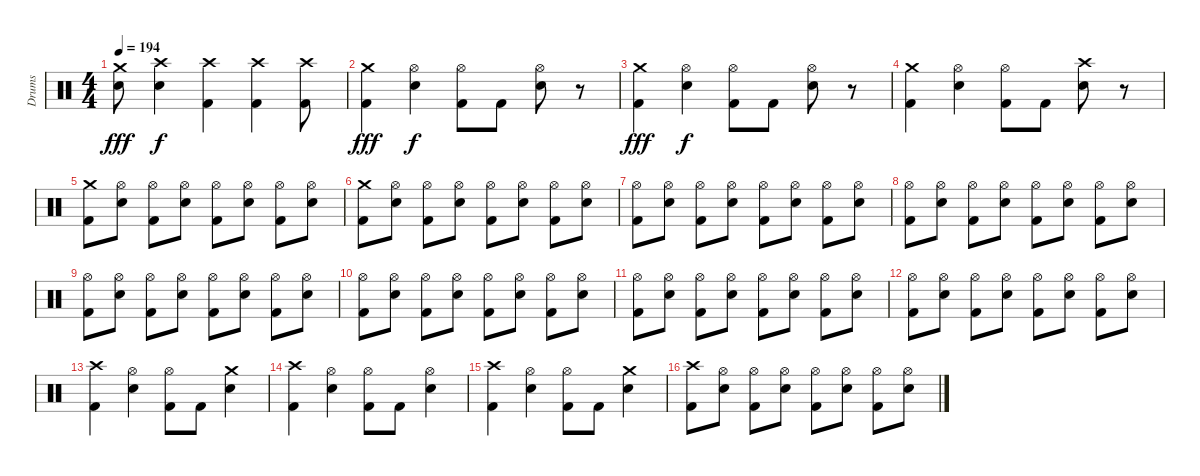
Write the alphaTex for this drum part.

\track ("Drums" "Drums") {instrument percussion}
\staff {score}
\articulation defaults
\ts (4 4)
\tempo 194
\clef neutral
\ks c
("Crash medium (hit)" "Snare (hit) 2").8{dy fff} ("Crash high (hit)" "Snare (hit) 2").4{dy f} ("Crash high (hit)" "Kick (hit) 2").4 ("Crash high (hit)" "Kick (hit) 2").4 ("Crash high (hit)" "Kick (hit) 2").8 |
("Crash medium (hit)" "Kick (hit) 2").4{dy fff} ("Hi-Hat (open)" "Snare (hit) 2").4{dy f} ("Hi-Hat (open)" "Kick (hit) 2").8 "Kick (hit) 2".8 ("Hi-Hat (open)" "Snare (hit) 2").8 r.8 |
("Crash medium (hit)" "Kick (hit) 2").4{dy fff} ("Hi-Hat (open)" "Snare (hit) 2").4{dy f} ("Hi-Hat (open)" "Kick (hit) 2").8 "Kick (hit) 2".8 ("Hi-Hat (open)" "Snare (hit) 2").8 r.8 |
("Crash medium (hit)" "Kick (hit) 2").4 ("Hi-Hat (open)" "Snare (hit) 2").4 ("Hi-Hat (open)" "Kick (hit) 2").8 "Kick (hit) 2".8 ("Crash high (hit)" "Snare (hit) 2").8 r.8 |
("Crash medium (hit)" "Kick (hit) 2").8 ("Hi-Hat (open)" "Snare (hit) 2").8 ("Hi-Hat (open)" "Kick (hit) 2").8 ("Hi-Hat (open)" "Snare (hit) 2").8 ("Hi-Hat (open)" "Kick (hit) 2").8 ("Hi-Hat (open)" "Snare (hit) 2").8 ("Hi-Hat (open)" "Kick (hit) 2").8 ("Hi-Hat (open)" "Snare (hit) 2").8 |
("Crash medium (hit)" "Kick (hit) 2").8 ("Hi-Hat (open)" "Snare (hit) 2").8 ("Hi-Hat (open)" "Kick (hit) 2").8 ("Hi-Hat (open)" "Snare (hit) 2").8 ("Hi-Hat (open)" "Kick (hit) 2").8 ("Hi-Hat (open)" "Snare (hit) 2").8 ("Hi-Hat (open)" "Kick (hit) 2").8 ("Hi-Hat (open)" "Snare (hit) 2").8 |
("Hi-Hat (open)" "Kick (hit) 2").8 ("Hi-Hat (open)" "Snare (hit) 2").8 ("Hi-Hat (open)" "Kick (hit) 2").8 ("Hi-Hat (open)" "Snare (hit) 2").8 ("Hi-Hat (open)" "Kick (hit) 2").8 ("Hi-Hat (open)" "Snare (hit) 2").8 ("Hi-Hat (open)" "Kick (hit) 2").8 ("Hi-Hat (open)" "Snare (hit) 2").8 |
("Hi-Hat (open)" "Kick (hit) 2").8 ("Hi-Hat (open)" "Snare (hit) 2").8 ("Hi-Hat (open)" "Kick (hit) 2").8 ("Hi-Hat (open)" "Snare (hit) 2").8 ("Hi-Hat (open)" "Kick (hit) 2").8 ("Hi-Hat (open)" "Snare (hit) 2").8 ("Hi-Hat (open)" "Kick (hit) 2").8 ("Hi-Hat (open)" "Snare (hit) 2").8 |
("Hi-Hat (open)" "Kick (hit) 2").8 ("Hi-Hat (open)" "Snare (hit) 2").8 ("Hi-Hat (open)" "Kick (hit) 2").8 ("Hi-Hat (open)" "Snare (hit) 2").8 ("Hi-Hat (open)" "Kick (hit) 2").8 ("Hi-Hat (open)" "Snare (hit) 2").8 ("Hi-Hat (open)" "Kick (hit) 2").8 ("Hi-Hat (open)" "Snare (hit) 2").8 |
("Hi-Hat (open)" "Kick (hit) 2").8 ("Hi-Hat (open)" "Snare (hit) 2").8 ("Hi-Hat (open)" "Kick (hit) 2").8 ("Hi-Hat (open)" "Snare (hit) 2").8 ("Hi-Hat (open)" "Kick (hit) 2").8 ("Hi-Hat (open)" "Snare (hit) 2").8 ("Hi-Hat (open)" "Kick (hit) 2").8 ("Hi-Hat (open)" "Snare (hit) 2").8 |
("Hi-Hat (open)" "Kick (hit) 2").8 ("Hi-Hat (open)" "Snare (hit) 2").8 ("Hi-Hat (open)" "Kick (hit) 2").8 ("Hi-Hat (open)" "Snare (hit) 2").8 ("Hi-Hat (open)" "Kick (hit) 2").8 ("Hi-Hat (open)" "Snare (hit) 2").8 ("Hi-Hat (open)" "Kick (hit) 2").8 ("Hi-Hat (open)" "Snare (hit) 2").8 |
("Hi-Hat (open)" "Kick (hit) 2").8 ("Hi-Hat (open)" "Snare (hit) 2").8 ("Hi-Hat (open)" "Kick (hit) 2").8 ("Hi-Hat (open)" "Snare (hit) 2").8 ("Hi-Hat (open)" "Kick (hit) 2").8 ("Hi-Hat (open)" "Snare (hit) 2").8 ("Hi-Hat (open)" "Kick (hit) 2").8 ("Hi-Hat (open)" "Snare (hit) 2").8 |
("Crash high (hit)" "Kick (hit) 2").4 ("Hi-Hat (open)" "Snare (hit) 2").4 ("Hi-Hat (open)" "Kick (hit) 2").8 "Kick (hit) 2".8 ("Crash medium (hit)" "Snare (hit) 2").4 |
("Crash high (hit)" "Kick (hit) 2").4 ("Hi-Hat (open)" "Snare (hit) 2").4 ("Hi-Hat (open)" "Kick (hit) 2").8 "Kick (hit) 2".8 ("Hi-Hat (open)" "Snare (hit) 2").4 |
("Crash high (hit)" "Kick (hit) 2").4 ("Hi-Hat (open)" "Snare (hit) 2").4 ("Hi-Hat (open)" "Kick (hit) 2").8 "Kick (hit) 2".8 ("Crash medium (hit)" "Snare (hit) 2").4 |
("Crash high (hit)" "Kick (hit) 2").8 ("Hi-Hat (open)" "Snare (hit) 2").8 ("Hi-Hat (open)" "Kick (hit) 2").8 ("Hi-Hat (open)" "Snare (hit) 2").8 ("Hi-Hat (open)" "Kick (hit) 2").8 ("Hi-Hat (open)" "Snare (hit) 2").8 ("Hi-Hat (open)" "Kick (hit) 2").8 ("Hi-Hat (open)" "Snare (hit) 2").8
